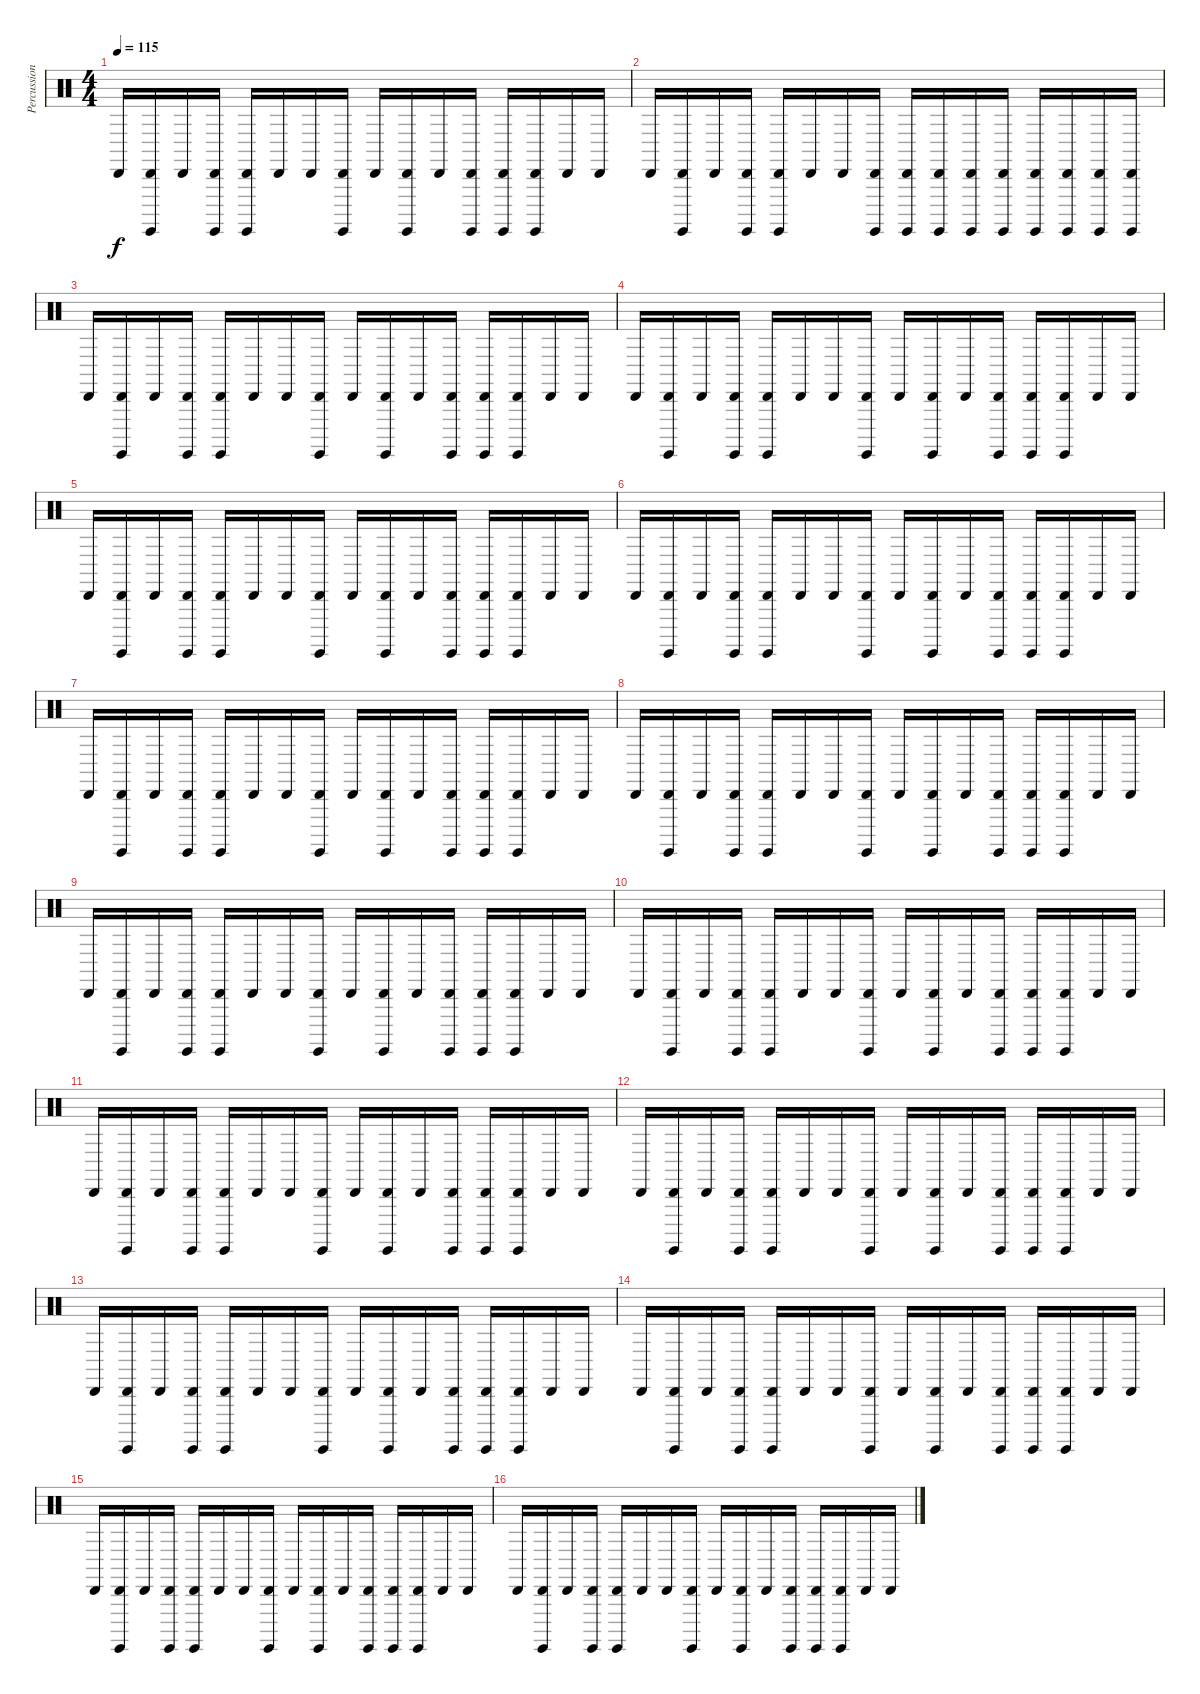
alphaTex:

\track ("Percussion" "Percussion") {instrument percussion}
\staff {score}
\articulation defaults
\ts (4 4)
\tempo 115
\clef neutral
\ks c "Cabasa (hit)".16{dy f}
("Cabasa (hit)" "Surdo (hit)").16 "Cabasa (hit)".16 ("Cabasa (hit)" "Surdo (hit)").16 ("Cabasa (hit)" "Surdo (hit)").16 "Cabasa (hit)".16 "Cabasa (hit)".16 ("Cabasa (hit)" "Surdo (hit)").16 "Cabasa (hit)".16 ("Cabasa (hit)" "Surdo (hit)").16 "Cabasa (hit)".16 ("Cabasa (hit)" "Surdo (hit)").16 ("Cabasa (hit)" "Surdo (hit)").16 ("Cabasa (hit)" "Surdo (hit)").16 "Cabasa (hit)".16 "Cabasa (hit)".16 |
"Cabasa (hit)".16 ("Cabasa (hit)" "Surdo (hit)").16 "Cabasa (hit)".16 ("Cabasa (hit)" "Surdo (hit)").16 ("Cabasa (hit)" "Surdo (hit)").16 "Cabasa (hit)".16 "Cabasa (hit)".16 ("Cabasa (hit)" "Surdo (hit)").16 ("Cabasa (hit)" "Surdo (hit)").16 ("Cabasa (hit)" "Surdo (hit)").16 ("Cabasa (hit)" "Surdo (hit)").16 ("Cabasa (hit)" "Surdo (hit)").16 ("Cabasa (hit)" "Surdo (hit)").16 ("Cabasa (hit)" "Surdo (hit)").16 ("Cabasa (hit)" "Surdo (hit)").16 ("Cabasa (hit)" "Surdo (hit)").16 |
"Cabasa (hit)".16 ("Cabasa (hit)" "Surdo (hit)").16 "Cabasa (hit)".16 ("Cabasa (hit)" "Surdo (hit)").16 ("Cabasa (hit)" "Surdo (hit)").16 "Cabasa (hit)".16 "Cabasa (hit)".16 ("Cabasa (hit)" "Surdo (hit)").16 "Cabasa (hit)".16 ("Cabasa (hit)" "Surdo (hit)").16 "Cabasa (hit)".16 ("Cabasa (hit)" "Surdo (hit)").16 ("Cabasa (hit)" "Surdo (hit)").16 ("Cabasa (hit)" "Surdo (hit)").16 "Cabasa (hit)".16 "Cabasa (hit)".16 |
"Cabasa (hit)".16 ("Cabasa (hit)" "Surdo (hit)").16 "Cabasa (hit)".16 ("Cabasa (hit)" "Surdo (hit)").16 ("Cabasa (hit)" "Surdo (hit)").16 "Cabasa (hit)".16 "Cabasa (hit)".16 ("Cabasa (hit)" "Surdo (hit)").16 "Cabasa (hit)".16 ("Cabasa (hit)" "Surdo (hit)").16 "Cabasa (hit)".16 ("Cabasa (hit)" "Surdo (hit)").16 ("Cabasa (hit)" "Surdo (hit)").16 ("Cabasa (hit)" "Surdo (hit)").16 "Cabasa (hit)".16 "Cabasa (hit)".16 |
"Cabasa (hit)".16 ("Cabasa (hit)" "Surdo (hit)").16 "Cabasa (hit)".16 ("Cabasa (hit)" "Surdo (hit)").16 ("Cabasa (hit)" "Surdo (hit)").16 "Cabasa (hit)".16 "Cabasa (hit)".16 ("Cabasa (hit)" "Surdo (hit)").16 "Cabasa (hit)".16 ("Cabasa (hit)" "Surdo (hit)").16 "Cabasa (hit)".16 ("Cabasa (hit)" "Surdo (hit)").16 ("Cabasa (hit)" "Surdo (hit)").16 ("Cabasa (hit)" "Surdo (hit)").16 "Cabasa (hit)".16 "Cabasa (hit)".16 |
"Cabasa (hit)".16 ("Cabasa (hit)" "Surdo (hit)").16 "Cabasa (hit)".16 ("Cabasa (hit)" "Surdo (hit)").16 ("Cabasa (hit)" "Surdo (hit)").16 "Cabasa (hit)".16 "Cabasa (hit)".16 ("Cabasa (hit)" "Surdo (hit)").16 "Cabasa (hit)".16 ("Cabasa (hit)" "Surdo (hit)").16 "Cabasa (hit)".16 ("Cabasa (hit)" "Surdo (hit)").16 ("Cabasa (hit)" "Surdo (hit)").16 ("Cabasa (hit)" "Surdo (hit)").16 "Cabasa (hit)".16 "Cabasa (hit)".16 |
"Cabasa (hit)".16 ("Cabasa (hit)" "Surdo (hit)").16 "Cabasa (hit)".16 ("Cabasa (hit)" "Surdo (hit)").16 ("Cabasa (hit)" "Surdo (hit)").16 "Cabasa (hit)".16 "Cabasa (hit)".16 ("Cabasa (hit)" "Surdo (hit)").16 "Cabasa (hit)".16 ("Cabasa (hit)" "Surdo (hit)").16 "Cabasa (hit)".16 ("Cabasa (hit)" "Surdo (hit)").16 ("Cabasa (hit)" "Surdo (hit)").16 ("Cabasa (hit)" "Surdo (hit)").16 "Cabasa (hit)".16 "Cabasa (hit)".16 |
"Cabasa (hit)".16 ("Cabasa (hit)" "Surdo (hit)").16 "Cabasa (hit)".16 ("Cabasa (hit)" "Surdo (hit)").16 ("Cabasa (hit)" "Surdo (hit)").16 "Cabasa (hit)".16 "Cabasa (hit)".16 ("Cabasa (hit)" "Surdo (hit)").16 "Cabasa (hit)".16 ("Cabasa (hit)" "Surdo (hit)").16 "Cabasa (hit)".16 ("Cabasa (hit)" "Surdo (hit)").16 ("Cabasa (hit)" "Surdo (hit)").16 ("Cabasa (hit)" "Surdo (hit)").16 "Cabasa (hit)".16 "Cabasa (hit)".16 |
"Cabasa (hit)".16 ("Cabasa (hit)" "Surdo (hit)").16 "Cabasa (hit)".16 ("Cabasa (hit)" "Surdo (hit)").16 ("Cabasa (hit)" "Surdo (hit)").16 "Cabasa (hit)".16 "Cabasa (hit)".16 ("Cabasa (hit)" "Surdo (hit)").16 "Cabasa (hit)".16 ("Cabasa (hit)" "Surdo (hit)").16 "Cabasa (hit)".16 ("Cabasa (hit)" "Surdo (hit)").16 ("Cabasa (hit)" "Surdo (hit)").16 ("Cabasa (hit)" "Surdo (hit)").16 "Cabasa (hit)".16 "Cabasa (hit)".16 |
"Cabasa (hit)".16 ("Cabasa (hit)" "Surdo (hit)").16 "Cabasa (hit)".16 ("Cabasa (hit)" "Surdo (hit)").16 ("Cabasa (hit)" "Surdo (hit)").16 "Cabasa (hit)".16 "Cabasa (hit)".16 ("Cabasa (hit)" "Surdo (hit)").16 "Cabasa (hit)".16 ("Cabasa (hit)" "Surdo (hit)").16 "Cabasa (hit)".16 ("Cabasa (hit)" "Surdo (hit)").16 ("Cabasa (hit)" "Surdo (hit)").16 ("Cabasa (hit)" "Surdo (hit)").16 "Cabasa (hit)".16 "Cabasa (hit)".16 |
"Cabasa (hit)".16 ("Cabasa (hit)" "Surdo (hit)").16 "Cabasa (hit)".16 ("Cabasa (hit)" "Surdo (hit)").16 ("Cabasa (hit)" "Surdo (hit)").16 "Cabasa (hit)".16 "Cabasa (hit)".16 ("Cabasa (hit)" "Surdo (hit)").16 "Cabasa (hit)".16 ("Cabasa (hit)" "Surdo (hit)").16 "Cabasa (hit)".16 ("Cabasa (hit)" "Surdo (hit)").16 ("Cabasa (hit)" "Surdo (hit)").16 ("Cabasa (hit)" "Surdo (hit)").16 "Cabasa (hit)".16 "Cabasa (hit)".16 |
"Cabasa (hit)".16 ("Cabasa (hit)" "Surdo (hit)").16 "Cabasa (hit)".16 ("Cabasa (hit)" "Surdo (hit)").16 ("Cabasa (hit)" "Surdo (hit)").16 "Cabasa (hit)".16 "Cabasa (hit)".16 ("Cabasa (hit)" "Surdo (hit)").16 "Cabasa (hit)".16 ("Cabasa (hit)" "Surdo (hit)").16 "Cabasa (hit)".16 ("Cabasa (hit)" "Surdo (hit)").16 ("Cabasa (hit)" "Surdo (hit)").16 ("Cabasa (hit)" "Surdo (hit)").16 "Cabasa (hit)".16 "Cabasa (hit)".16 |
"Cabasa (hit)".16 ("Cabasa (hit)" "Surdo (hit)").16 "Cabasa (hit)".16 ("Cabasa (hit)" "Surdo (hit)").16 ("Cabasa (hit)" "Surdo (hit)").16 "Cabasa (hit)".16 "Cabasa (hit)".16 ("Cabasa (hit)" "Surdo (hit)").16 "Cabasa (hit)".16 ("Cabasa (hit)" "Surdo (hit)").16 "Cabasa (hit)".16 ("Cabasa (hit)" "Surdo (hit)").16 ("Cabasa (hit)" "Surdo (hit)").16 ("Cabasa (hit)" "Surdo (hit)").16 "Cabasa (hit)".16 "Cabasa (hit)".16 |
"Cabasa (hit)".16 ("Cabasa (hit)" "Surdo (hit)").16 "Cabasa (hit)".16 ("Cabasa (hit)" "Surdo (hit)").16 ("Cabasa (hit)" "Surdo (hit)").16 "Cabasa (hit)".16 "Cabasa (hit)".16 ("Cabasa (hit)" "Surdo (hit)").16 "Cabasa (hit)".16 ("Cabasa (hit)" "Surdo (hit)").16 "Cabasa (hit)".16 ("Cabasa (hit)" "Surdo (hit)").16 ("Cabasa (hit)" "Surdo (hit)").16 ("Cabasa (hit)" "Surdo (hit)").16 "Cabasa (hit)".16 "Cabasa (hit)".16 |
"Cabasa (hit)".16 ("Cabasa (hit)" "Surdo (hit)").16 "Cabasa (hit)".16 ("Cabasa (hit)" "Surdo (hit)").16 ("Cabasa (hit)" "Surdo (hit)").16 "Cabasa (hit)".16 "Cabasa (hit)".16 ("Cabasa (hit)" "Surdo (hit)").16 "Cabasa (hit)".16 ("Cabasa (hit)" "Surdo (hit)").16 "Cabasa (hit)".16 ("Cabasa (hit)" "Surdo (hit)").16 ("Cabasa (hit)" "Surdo (hit)").16 ("Cabasa (hit)" "Surdo (hit)").16 "Cabasa (hit)".16 "Cabasa (hit)".16 |
"Cabasa (hit)".16 ("Cabasa (hit)" "Surdo (hit)").16 "Cabasa (hit)".16 ("Cabasa (hit)" "Surdo (hit)").16 ("Cabasa (hit)" "Surdo (hit)").16 "Cabasa (hit)".16 "Cabasa (hit)".16 ("Cabasa (hit)" "Surdo (hit)").16 "Cabasa (hit)".16 ("Cabasa (hit)" "Surdo (hit)").16 "Cabasa (hit)".16 ("Cabasa (hit)" "Surdo (hit)").16 ("Cabasa (hit)" "Surdo (hit)").16 ("Cabasa (hit)" "Surdo (hit)").16 "Cabasa (hit)".16 "Cabasa (hit)".16
